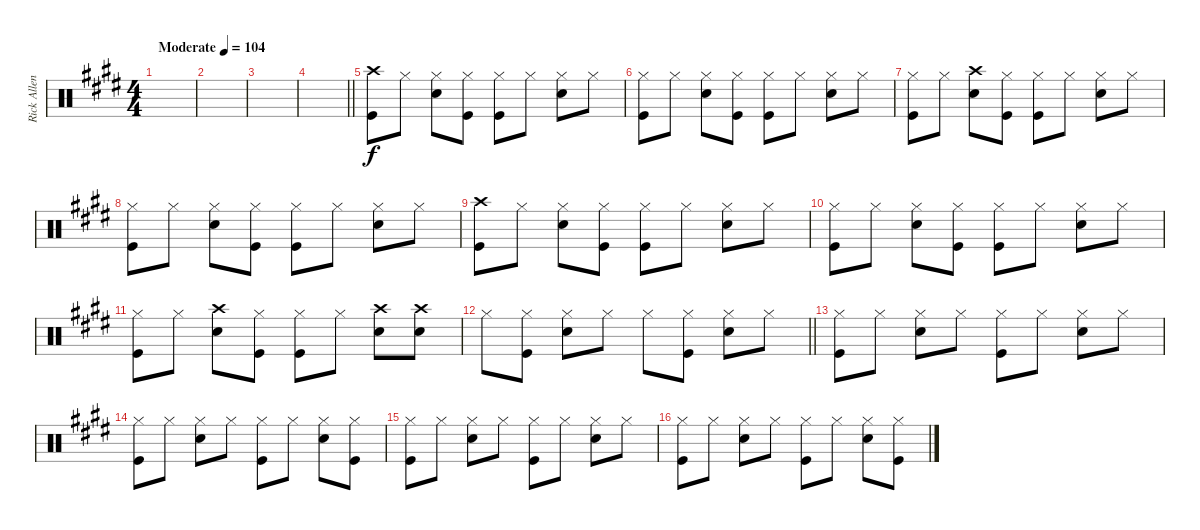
\track ("Rick Allen" "Rick Allen") {instrument percussion}
\staff {score}
\articulation defaults
\ts (4 4)
\tempo (104 "Moderate")
\clef neutral
\ks e
|
|
|
\barLineRight lightlight
|
("Crash high (hit)" "Kick (hit)").8 "Hi-Hat (closed)".8 ("Hi-Hat (closed)" "Snare (hit) 2").8 ("Hi-Hat (closed)" "Kick (hit)").8 ("Hi-Hat (closed)" "Kick (hit)").8 "Hi-Hat (closed)".8 ("Hi-Hat (closed)" "Snare (hit) 2").8 "Hi-Hat (closed)".8 |
("Hi-Hat (closed)" "Kick (hit)").8 "Hi-Hat (closed)".8 ("Hi-Hat (closed)" "Snare (hit) 2").8 ("Hi-Hat (closed)" "Kick (hit)").8 ("Hi-Hat (closed)" "Kick (hit)").8 "Hi-Hat (closed)".8 ("Hi-Hat (closed)" "Snare (hit) 2").8 "Hi-Hat (closed)".8 |
("Hi-Hat (closed)" "Kick (hit)").8 "Hi-Hat (closed)".8 ("Crash high (hit)" "Snare (hit) 2").8 ("Hi-Hat (closed)" "Kick (hit)").8 ("Hi-Hat (closed)" "Kick (hit)").8 "Hi-Hat (closed)".8 ("Hi-Hat (closed)" "Snare (hit) 2").8 "Hi-Hat (closed)".8 |
("Hi-Hat (closed)" "Kick (hit)").8 "Hi-Hat (closed)".8 ("Hi-Hat (closed)" "Snare (hit) 2").8 ("Hi-Hat (closed)" "Kick (hit)").8 ("Hi-Hat (closed)" "Kick (hit)").8 "Hi-Hat (closed)".8 ("Hi-Hat (closed)" "Snare (hit) 2").8 "Hi-Hat (closed)".8 |
("Crash high (hit)" "Kick (hit)").8 "Hi-Hat (closed)".8 ("Hi-Hat (closed)" "Snare (hit) 2").8 ("Hi-Hat (closed)" "Kick (hit)").8 ("Hi-Hat (closed)" "Kick (hit)").8 "Hi-Hat (closed)".8 ("Hi-Hat (closed)" "Snare (hit) 2").8 "Hi-Hat (closed)".8 |
("Hi-Hat (closed)" "Kick (hit)").8 "Hi-Hat (closed)".8 ("Hi-Hat (closed)" "Snare (hit) 2").8 ("Hi-Hat (closed)" "Kick (hit)").8 ("Hi-Hat (closed)" "Kick (hit)").8 "Hi-Hat (closed)".8 ("Hi-Hat (closed)" "Snare (hit) 2").8 "Hi-Hat (closed)".8 |
("Hi-Hat (closed)" "Kick (hit)").8 "Hi-Hat (closed)".8 ("Crash high (hit)" "Snare (hit) 2").8 ("Hi-Hat (closed)" "Kick (hit)").8 ("Hi-Hat (closed)" "Kick (hit)").8 "Hi-Hat (closed)".8 ("Crash high (hit)" "Snare (hit) 2").8 ("Crash high (hit)" "Snare (hit) 2").8 |
\barLineRight lightlight "Hi-Hat (closed)".8
("Hi-Hat (closed)" "Kick (hit)").8 ("Hi-Hat (closed)" "Snare (hit) 2").8 "Hi-Hat (closed)".8 "Hi-Hat (closed)".8 ("Hi-Hat (closed)" "Kick (hit)").8 ("Hi-Hat (closed)" "Snare (hit) 2").8 "Hi-Hat (closed)".8 |
("Hi-Hat (closed)" "Kick (hit)").8 "Hi-Hat (closed)".8 ("Hi-Hat (closed)" "Snare (hit) 2").8 "Hi-Hat (closed)".8 ("Hi-Hat (closed)" "Kick (hit)").8 "Hi-Hat (closed)".8 ("Hi-Hat (closed)" "Snare (hit) 2").8 "Hi-Hat (closed)".8 |
("Hi-Hat (closed)" "Kick (hit)").8 "Hi-Hat (closed)".8 ("Hi-Hat (closed)" "Snare (hit) 2").8 "Hi-Hat (closed)".8 ("Hi-Hat (closed)" "Kick (hit)").8 "Hi-Hat (closed)".8 ("Hi-Hat (closed)" "Snare (hit) 2").8 ("Hi-Hat (closed)" "Kick (hit)").8 |
("Hi-Hat (closed)" "Kick (hit)").8 "Hi-Hat (closed)".8 ("Hi-Hat (closed)" "Snare (hit) 2").8 "Hi-Hat (closed)".8 ("Hi-Hat (closed)" "Kick (hit)").8 "Hi-Hat (closed)".8 ("Hi-Hat (closed)" "Snare (hit) 2").8 "Hi-Hat (closed)".8 |
("Hi-Hat (closed)" "Kick (hit)").8 "Hi-Hat (closed)".8 ("Hi-Hat (closed)" "Snare (hit) 2").8 "Hi-Hat (closed)".8 ("Hi-Hat (closed)" "Kick (hit)").8 "Hi-Hat (closed)".8 ("Hi-Hat (closed)" "Snare (hit) 2").8 ("Hi-Hat (closed)" "Kick (hit)").8
